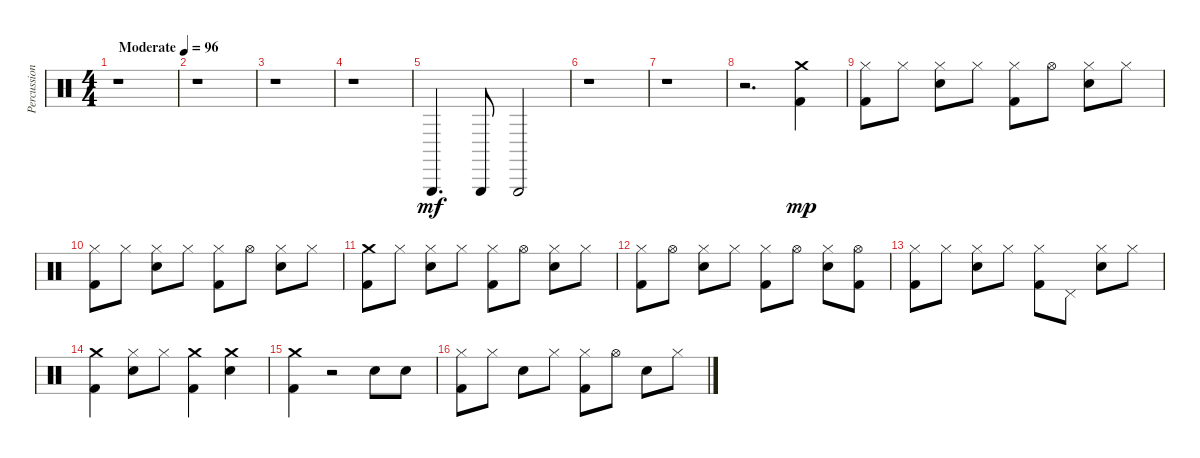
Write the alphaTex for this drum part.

\track ("Percussion" "Percussion") {instrument percussion}
\staff {score}
\articulation defaults
\ts (4 4)
\tempo (96 "Moderate")
\clef neutral
\ks c
r.1{dy mf} |
r.1 |
r.1 |
r.1 |
"Triangle (hit)".4{d} "Triangle (hit)".8 "Triangle (hit)".2 |
r.1 |
r.1 |
r.2{d} ("Crash medium (hit)" "Kick (hit) 2").4{dy mp} |
("Hi-Hat (closed)" "Kick (hit) 2").8 "Hi-Hat (closed)".8 ("Hi-Hat (closed)" "Snare (hit) 2").8 "Hi-Hat (closed)".8 ("Hi-Hat (closed)" "Kick (hit) 2").8 "Hi-Hat (open)".8 ("Hi-Hat (closed)" "Snare (hit) 2").8 "Hi-Hat (closed)".8 |
("Hi-Hat (closed)" "Kick (hit) 2").8 "Hi-Hat (closed)".8 ("Hi-Hat (closed)" "Snare (hit) 2").8 "Hi-Hat (closed)".8 ("Hi-Hat (closed)" "Kick (hit) 2").8 "Hi-Hat (open)".8 ("Hi-Hat (closed)" "Snare (hit) 2").8 "Hi-Hat (closed)".8 |
("Crash medium (hit)" "Kick (hit) 2").8 "Hi-Hat (closed)".8 ("Hi-Hat (closed)" "Snare (hit) 2").8 "Hi-Hat (closed)".8 ("Hi-Hat (closed)" "Kick (hit) 2").8 "Hi-Hat (open)".8 ("Hi-Hat (closed)" "Snare (hit) 2").8 "Hi-Hat (closed)".8 |
("Hi-Hat (closed)" "Kick (hit) 2").8 "Hi-Hat (open)".8 ("Hi-Hat (closed)" "Snare (hit) 2").8 "Hi-Hat (closed)".8 ("Hi-Hat (closed)" "Kick (hit) 2").8 "Hi-Hat (open)".8 ("Hi-Hat (closed)" "Snare (hit) 2").8 ("Hi-Hat (open)" "Kick (hit) 2").8 |
("Hi-Hat (closed)" "Kick (hit) 2").8 "Hi-Hat (closed)".8 ("Hi-Hat (closed)" "Snare (hit) 2").8 "Hi-Hat (closed)".8 ("Hi-Hat (closed)" "Kick (hit) 2").8 "Pedal Hi-Hat (hit)".8 ("Hi-Hat (closed)" "Snare (hit) 2").8 "Hi-Hat (closed)".8 |
("Crash medium (hit)" "Kick (hit) 2").4 ("Hi-Hat (closed)" "Snare (hit) 2").8 "Hi-Hat (closed)".8 ("Crash medium (hit)" "Kick (hit) 2").4 ("Crash medium (hit)" "Snare (hit) 2").4 |
("Crash medium (hit)" "Kick (hit) 2").4 r.2 "Snare (hit) 2".8 "Snare (hit) 2".8 |
("Hi-Hat (closed)" "Kick (hit) 2").8 "Hi-Hat (closed)".8 "Snare (hit) 2".8 "Hi-Hat (closed)".8 ("Hi-Hat (closed)" "Kick (hit) 2").8 "Hi-Hat (open)".8 "Snare (hit) 2".8 "Hi-Hat (closed)".8
